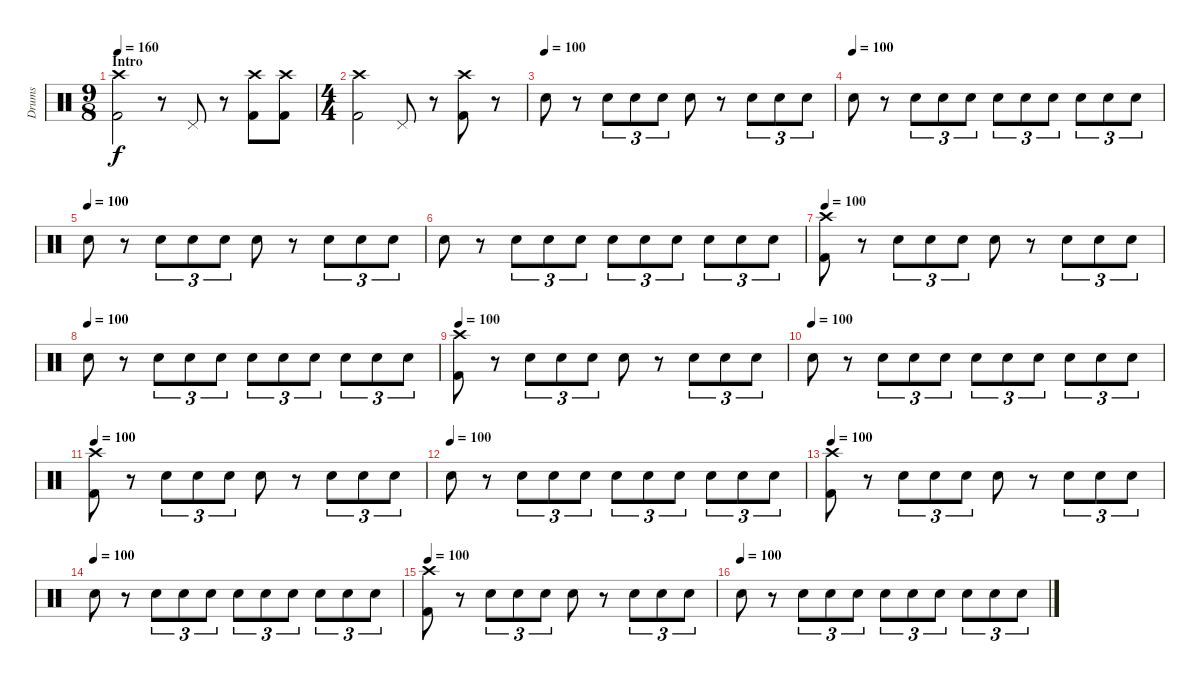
\track ("Drums" "Drums") {instrument percussion}
\staff {score}
\articulation defaults
\ts (9 8)
\section ("" "Intro")
\tempo 160
\tempo 100
\tempo 160
\clef neutral
\ks c
("Kick (hit) 2" "Crash high (hit)").2{dy f} r.8 "Pedal Hi-Hat (hit)".8 r.8 ("Crash high (hit)" "Kick (hit) 2").8 ("Crash high (hit)" "Kick (hit) 2").8 |
\ts (4 4)
("Kick (hit) 2" "Crash high (hit)").2 "Pedal Hi-Hat (hit)".8 r.8 ("Kick (hit) 2" "Crash high (hit)").8 r.8 |
\tempo (100)
"Snare (hit) 2".8 r.8 "Snare (hit) 2".8{tu (3 2)} "Snare (hit) 2".8{tu (3 2)} "Snare (hit) 2".8{tu (3 2)} "Snare (hit) 2".8 r.8 "Snare (hit) 2".8{tu (3 2)} "Snare (hit) 2".8{tu (3 2)} "Snare (hit) 2".8{tu (3 2)} |
\tempo (100)
"Snare (hit) 2".8 r.8 "Snare (hit) 2".8{tu (3 2)} "Snare (hit) 2".8{tu (3 2)} "Snare (hit) 2".8{tu (3 2)} "Snare (hit) 2".8{tu (3 2)} "Snare (hit) 2".8{tu (3 2)} "Snare (hit) 2".8{tu (3 2)} "Snare (hit) 2".8{tu (3 2)} "Snare (hit) 2".8{tu (3 2)} "Snare (hit) 2".8{tu (3 2)} |
\tempo (100)
"Snare (hit) 2".8 r.8 "Snare (hit) 2".8{tu (3 2)} "Snare (hit) 2".8{tu (3 2)} "Snare (hit) 2".8{tu (3 2)} "Snare (hit) 2".8 r.8 "Snare (hit) 2".8{tu (3 2)} "Snare (hit) 2".8{tu (3 2)} "Snare (hit) 2".8{tu (3 2)} |
"Snare (hit) 2".8 r.8 "Snare (hit) 2".8{tu (3 2)} "Snare (hit) 2".8{tu (3 2)} "Snare (hit) 2".8{tu (3 2)} "Snare (hit) 2".8{tu (3 2)} "Snare (hit) 2".8{tu (3 2)} "Snare (hit) 2".8{tu (3 2)} "Snare (hit) 2".8{tu (3 2)} "Snare (hit) 2".8{tu (3 2)} "Snare (hit) 2".8{tu (3 2)} |
\tempo 100
("Kick (hit) 2" "Crash high (hit)").8 r.8 "Snare (hit) 2".8{tu (3 2)} "Snare (hit) 2".8{tu (3 2)} "Snare (hit) 2".8{tu (3 2)} "Snare (hit) 2".8 r.8 "Snare (hit) 2".8{tu (3 2)} "Snare (hit) 2".8{tu (3 2)} "Snare (hit) 2".8{tu (3 2)} |
\tempo (100)
"Snare (hit) 2".8 r.8 "Snare (hit) 2".8{tu (3 2)} "Snare (hit) 2".8{tu (3 2)} "Snare (hit) 2".8{tu (3 2)} "Snare (hit) 2".8{tu (3 2)} "Snare (hit) 2".8{tu (3 2)} "Snare (hit) 2".8{tu (3 2)} "Snare (hit) 2".8{tu (3 2)} "Snare (hit) 2".8{tu (3 2)} "Snare (hit) 2".8{tu (3 2)} |
\tempo 100
("Kick (hit) 2" "Crash high (hit)").8 r.8 "Snare (hit) 2".8{tu (3 2)} "Snare (hit) 2".8{tu (3 2)} "Snare (hit) 2".8{tu (3 2)} "Snare (hit) 2".8 r.8 "Snare (hit) 2".8{tu (3 2)} "Snare (hit) 2".8{tu (3 2)} "Snare (hit) 2".8{tu (3 2)} |
\tempo (100)
"Snare (hit) 2".8 r.8 "Snare (hit) 2".8{tu (3 2)} "Snare (hit) 2".8{tu (3 2)} "Snare (hit) 2".8{tu (3 2)} "Snare (hit) 2".8{tu (3 2)} "Snare (hit) 2".8{tu (3 2)} "Snare (hit) 2".8{tu (3 2)} "Snare (hit) 2".8{tu (3 2)} "Snare (hit) 2".8{tu (3 2)} "Snare (hit) 2".8{tu (3 2)} |
\tempo 100
("Kick (hit) 2" "Crash high (hit)").8 r.8 "Snare (hit) 2".8{tu (3 2)} "Snare (hit) 2".8{tu (3 2)} "Snare (hit) 2".8{tu (3 2)} "Snare (hit) 2".8 r.8 "Snare (hit) 2".8{tu (3 2)} "Snare (hit) 2".8{tu (3 2)} "Snare (hit) 2".8{tu (3 2)} |
\tempo (100)
"Snare (hit) 2".8 r.8 "Snare (hit) 2".8{tu (3 2)} "Snare (hit) 2".8{tu (3 2)} "Snare (hit) 2".8{tu (3 2)} "Snare (hit) 2".8{tu (3 2)} "Snare (hit) 2".8{tu (3 2)} "Snare (hit) 2".8{tu (3 2)} "Snare (hit) 2".8{tu (3 2)} "Snare (hit) 2".8{tu (3 2)} "Snare (hit) 2".8{tu (3 2)} |
\tempo 100
("Kick (hit) 2" "Crash high (hit)").8 r.8 "Snare (hit) 2".8{tu (3 2)} "Snare (hit) 2".8{tu (3 2)} "Snare (hit) 2".8{tu (3 2)} "Snare (hit) 2".8 r.8 "Snare (hit) 2".8{tu (3 2)} "Snare (hit) 2".8{tu (3 2)} "Snare (hit) 2".8{tu (3 2)} |
\tempo (100)
"Snare (hit) 2".8 r.8 "Snare (hit) 2".8{tu (3 2)} "Snare (hit) 2".8{tu (3 2)} "Snare (hit) 2".8{tu (3 2)} "Snare (hit) 2".8{tu (3 2)} "Snare (hit) 2".8{tu (3 2)} "Snare (hit) 2".8{tu (3 2)} "Snare (hit) 2".8{tu (3 2)} "Snare (hit) 2".8{tu (3 2)} "Snare (hit) 2".8{tu (3 2)} |
\tempo 100
("Kick (hit) 2" "Crash high (hit)").8 r.8 "Snare (hit) 2".8{tu (3 2)} "Snare (hit) 2".8{tu (3 2)} "Snare (hit) 2".8{tu (3 2)} "Snare (hit) 2".8 r.8 "Snare (hit) 2".8{tu (3 2)} "Snare (hit) 2".8{tu (3 2)} "Snare (hit) 2".8{tu (3 2)} |
\tempo (100)
"Snare (hit) 2".8 r.8 "Snare (hit) 2".8{tu (3 2)} "Snare (hit) 2".8{tu (3 2)} "Snare (hit) 2".8{tu (3 2)} "Snare (hit) 2".8{tu (3 2)} "Snare (hit) 2".8{tu (3 2)} "Snare (hit) 2".8{tu (3 2)} "Snare (hit) 2".8{tu (3 2)} "Snare (hit) 2".8{tu (3 2)} "Snare (hit) 2".8{tu (3 2)}
